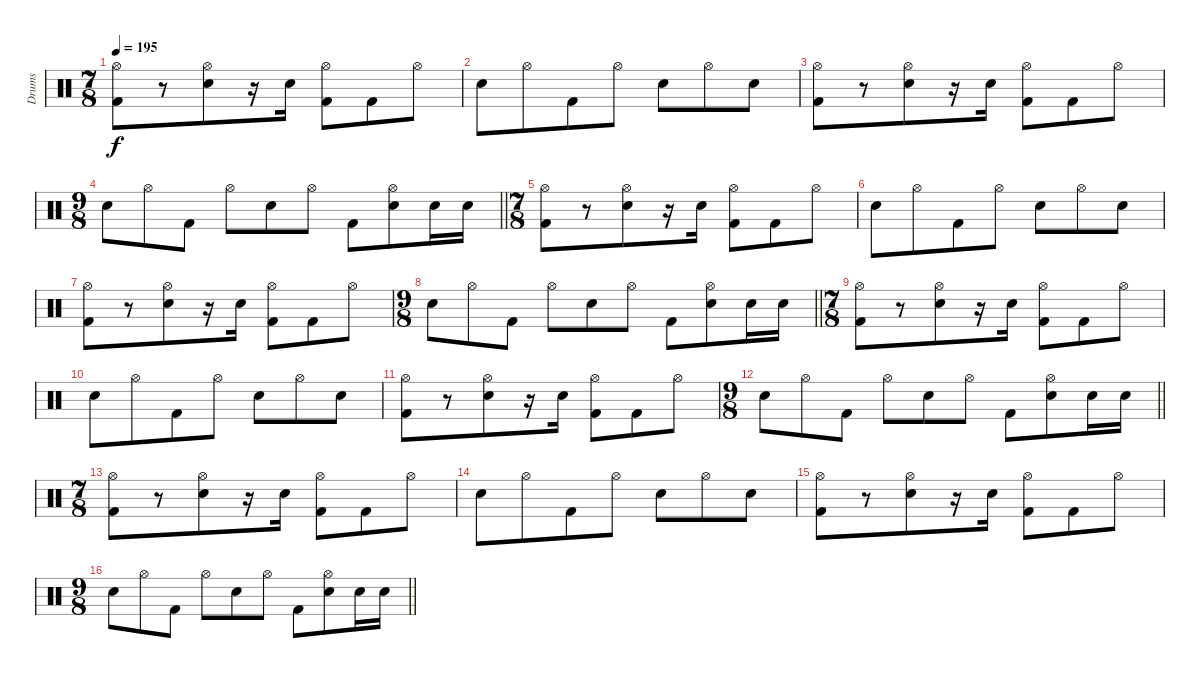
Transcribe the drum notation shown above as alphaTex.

\track ("Drums" "Drums") {instrument percussion}
\staff {score}
\articulation defaults
\ts (7 8)
\tempo 195
\clef neutral
\ks c
("Hi-Hat (open)" "Kick (hit) 2").8{dy f} r.8 ("Hi-Hat (open)" "Electric Snare (hit)").8 r.16 "Electric Snare (hit)".16 ("Hi-Hat (open)" "Kick (hit) 2").8 "Kick (hit) 2".8 "Hi-Hat (open)".8 |
"Electric Snare (hit)".8 "Hi-Hat (open)".8 "Kick (hit) 2".8 "Hi-Hat (open)".8 "Electric Snare (hit)".8 "Hi-Hat (open)".8 "Electric Snare (hit)".8 |
("Hi-Hat (open)" "Kick (hit) 2").8 r.8 ("Hi-Hat (open)" "Electric Snare (hit)").8 r.16 "Electric Snare (hit)".16 ("Hi-Hat (open)" "Kick (hit) 2").8 "Kick (hit) 2".8 "Hi-Hat (open)".8 |
\ts (9 8)
\barLineRight lightlight "Electric Snare (hit)".8 "Hi-Hat (open)".8 "Kick (hit) 2".8 "Hi-Hat (open)".8 "Electric Snare (hit)".8 "Hi-Hat (open)".8 "Kick (hit) 2".8
("Hi-Hat (open)" "Electric Snare (hit)").8 "Electric Snare (hit)".16 "Electric Snare (hit)".16 |
\ts (7 8)
("Hi-Hat (open)" "Kick (hit) 2").8 r.8 ("Hi-Hat (open)" "Electric Snare (hit)").8 r.16 "Electric Snare (hit)".16 ("Hi-Hat (open)" "Kick (hit) 2").8 "Kick (hit) 2".8 "Hi-Hat (open)".8 |
"Electric Snare (hit)".8 "Hi-Hat (open)".8 "Kick (hit) 2".8 "Hi-Hat (open)".8 "Electric Snare (hit)".8 "Hi-Hat (open)".8 "Electric Snare (hit)".8 |
("Hi-Hat (open)" "Kick (hit) 2").8 r.8 ("Hi-Hat (open)" "Electric Snare (hit)").8 r.16 "Electric Snare (hit)".16 ("Hi-Hat (open)" "Kick (hit) 2").8 "Kick (hit) 2".8 "Hi-Hat (open)".8 |
\ts (9 8)
\barLineRight lightlight "Electric Snare (hit)".8 "Hi-Hat (open)".8 "Kick (hit) 2".8 "Hi-Hat (open)".8 "Electric Snare (hit)".8 "Hi-Hat (open)".8 "Kick (hit) 2".8
("Hi-Hat (open)" "Electric Snare (hit)").8 "Electric Snare (hit)".16 "Electric Snare (hit)".16 |
\ts (7 8)
("Hi-Hat (open)" "Kick (hit) 2").8 r.8 ("Hi-Hat (open)" "Electric Snare (hit)").8 r.16 "Electric Snare (hit)".16 ("Hi-Hat (open)" "Kick (hit) 2").8 "Kick (hit) 2".8 "Hi-Hat (open)".8 |
"Electric Snare (hit)".8 "Hi-Hat (open)".8 "Kick (hit) 2".8 "Hi-Hat (open)".8 "Electric Snare (hit)".8 "Hi-Hat (open)".8 "Electric Snare (hit)".8 |
("Hi-Hat (open)" "Kick (hit) 2").8 r.8 ("Hi-Hat (open)" "Electric Snare (hit)").8 r.16 "Electric Snare (hit)".16 ("Hi-Hat (open)" "Kick (hit) 2").8 "Kick (hit) 2".8 "Hi-Hat (open)".8 |
\ts (9 8)
\barLineRight lightlight "Electric Snare (hit)".8 "Hi-Hat (open)".8 "Kick (hit) 2".8 "Hi-Hat (open)".8 "Electric Snare (hit)".8 "Hi-Hat (open)".8 "Kick (hit) 2".8
("Hi-Hat (open)" "Electric Snare (hit)").8 "Electric Snare (hit)".16 "Electric Snare (hit)".16 |
\ts (7 8)
("Hi-Hat (open)" "Kick (hit) 2").8 r.8 ("Hi-Hat (open)" "Electric Snare (hit)").8 r.16 "Electric Snare (hit)".16 ("Hi-Hat (open)" "Kick (hit) 2").8 "Kick (hit) 2".8 "Hi-Hat (open)".8 |
"Electric Snare (hit)".8 "Hi-Hat (open)".8 "Kick (hit) 2".8 "Hi-Hat (open)".8 "Electric Snare (hit)".8 "Hi-Hat (open)".8 "Electric Snare (hit)".8 |
("Hi-Hat (open)" "Kick (hit) 2").8 r.8 ("Hi-Hat (open)" "Electric Snare (hit)").8 r.16 "Electric Snare (hit)".16 ("Hi-Hat (open)" "Kick (hit) 2").8 "Kick (hit) 2".8 "Hi-Hat (open)".8 |
\ts (9 8)
\barLineRight lightlight "Electric Snare (hit)".8 "Hi-Hat (open)".8 "Kick (hit) 2".8 "Hi-Hat (open)".8 "Electric Snare (hit)".8 "Hi-Hat (open)".8 "Kick (hit) 2".8
("Hi-Hat (open)" "Electric Snare (hit)").8 "Electric Snare (hit)".16 "Electric Snare (hit)".16
